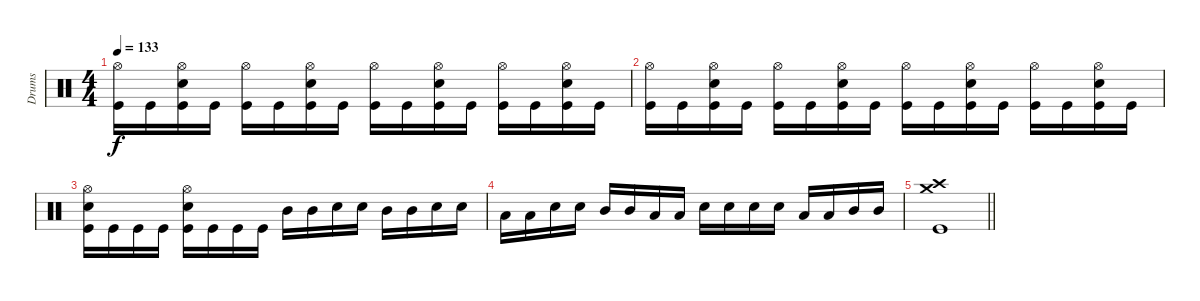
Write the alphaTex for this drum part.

\track ("Drums" "Drums") {instrument percussion}
\staff {score}
\articulation defaults
\ts (4 4)
\tempo 133
\clef neutral
\ks c
("Hi-Hat (open)" "Kick (hit)").16{dy f} "Kick (hit)".16 ("Hi-Hat (open)" "Electric Snare (hit)" "Kick (hit)").16 "Kick (hit)".16 ("Hi-Hat (open)" "Kick (hit)").16 "Kick (hit)".16 ("Hi-Hat (open)" "Electric Snare (hit)" "Kick (hit)").16 "Kick (hit)".16 ("Hi-Hat (open)" "Kick (hit)").16 "Kick (hit)".16 ("Hi-Hat (open)" "Electric Snare (hit)" "Kick (hit)").16 "Kick (hit)".16 ("Hi-Hat (open)" "Kick (hit)").16 "Kick (hit)".16 ("Hi-Hat (open)" "Electric Snare (hit)" "Kick (hit)").16 "Kick (hit)".16 |
("Hi-Hat (open)" "Kick (hit)").16 "Kick (hit)".16 ("Hi-Hat (open)" "Electric Snare (hit)" "Kick (hit)").16 "Kick (hit)".16 ("Hi-Hat (open)" "Kick (hit)").16 "Kick (hit)".16 ("Hi-Hat (open)" "Electric Snare (hit)" "Kick (hit)").16 "Kick (hit)".16 ("Hi-Hat (open)" "Kick (hit)").16 "Kick (hit)".16 ("Hi-Hat (open)" "Electric Snare (hit)" "Kick (hit)").16 "Kick (hit)".16 ("Hi-Hat (open)" "Kick (hit)").16 "Kick (hit)".16 ("Hi-Hat (open)" "Electric Snare (hit)" "Kick (hit)").16 "Kick (hit)".16 |
("Hi-Hat (open)" "Electric Snare (hit)" "Kick (hit)").16 "Kick (hit)".16 "Kick (hit)".16 "Kick (hit)".16 ("Hi-Hat (open)" "Electric Snare (hit)" "Kick (hit)").16 "Kick (hit)".16 "Kick (hit)".16 "Kick (hit)".16 "Mid Tom (hit)".16 "Mid Tom (hit)".16 "Electric Snare (hit)".16 "Electric Snare (hit)".16 "Mid Tom (hit)".16 "Mid Tom (hit)".16 "Electric Snare (hit)".16 "Electric Snare (hit)".16 |
"Low Tom (hit)".16 "Low Tom (hit)".16 "Electric Snare (hit)".16 "Electric Snare (hit)".16 "Mid Tom (hit)".16 "Mid Tom (hit)".16 "Low Tom (hit)".16 "Low Tom (hit)".16 "Electric Snare (hit)".16 "Electric Snare (hit)".16 "Electric Snare (hit)".16 "Electric Snare (hit)".16 "Low Tom (hit)".16 "Low Tom (hit)".16 "Mid Tom (hit)".16 "Mid Tom (hit)".16 |
\barLineRight lightlight
("Crash high (hit)" "Crash medium (hit)" "Kick (hit)").1
